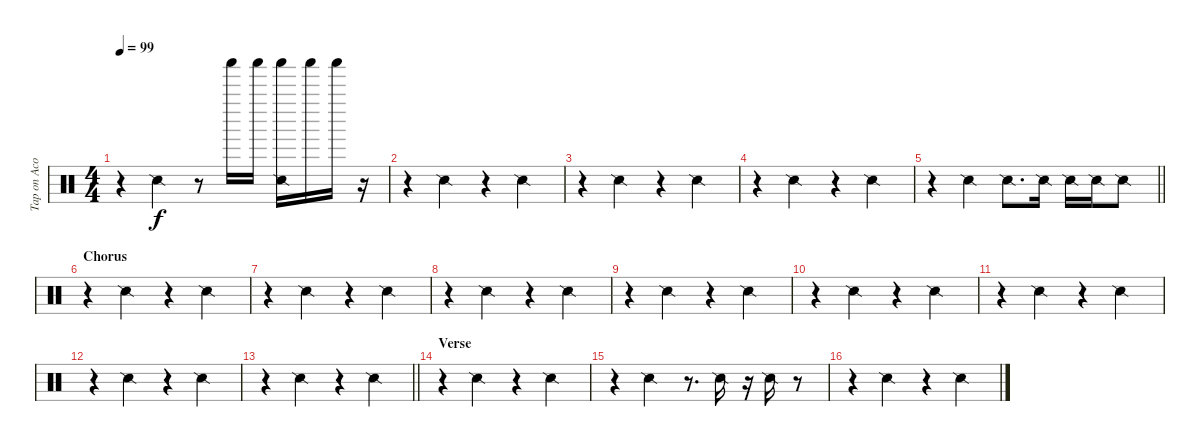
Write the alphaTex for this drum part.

\track ("Tap on Acoustic" "Tap on Aco") {instrument percussion}
\staff {score}
\articulation defaults
\ts (4 4)
\tempo 99
\clef neutral
\ks c
r.4{dy f} "Snare (side stick) 2".4 r.8 "Shaker (hit)".16 "Shaker (hit)".16 ("Snare (side stick) 2" "Shaker (hit)").16 "Shaker (hit)".16 "Shaker (hit)".16 r.16 |
r.4 "Snare (side stick) 2".4 r.4 "Snare (side stick) 2".4 |
r.4 "Snare (side stick) 2".4 r.4 "Snare (side stick) 2".4 |
r.4 "Snare (side stick) 2".4 r.4 "Snare (side stick) 2".4 |
\barLineRight lightlight
r.4 "Snare (side stick) 2".4 "Snare (side stick) 2".8{d} "Snare (side stick) 2".16 "Snare (side stick) 2".16 "Snare (side stick) 2".16 "Snare (side stick) 2".8 |
\section ("" "Chorus")
r.4 "Snare (side stick) 2".4 r.4 "Snare (side stick) 2".4 |
r.4 "Snare (side stick) 2".4 r.4 "Snare (side stick) 2".4 |
r.4 "Snare (side stick) 2".4 r.4 "Snare (side stick) 2".4 |
r.4 "Snare (side stick) 2".4 r.4 "Snare (side stick) 2".4 |
r.4 "Snare (side stick) 2".4 r.4 "Snare (side stick) 2".4 |
r.4 "Snare (side stick) 2".4 r.4 "Snare (side stick) 2".4 |
r.4 "Snare (side stick) 2".4 r.4 "Snare (side stick) 2".4 |
\barLineRight lightlight
r.4 "Snare (side stick) 2".4 r.4 "Snare (side stick) 2".4 |
\section ("" "Verse")
r.4 "Snare (side stick) 2".4 r.4 "Snare (side stick) 2".4 |
r.4 "Snare (side stick) 2".4 r.8{d} "Snare (side stick) 2".16 r.16 "Snare (side stick) 2".16 r.8 |
r.4 "Snare (side stick) 2".4 r.4 "Snare (side stick) 2".4
